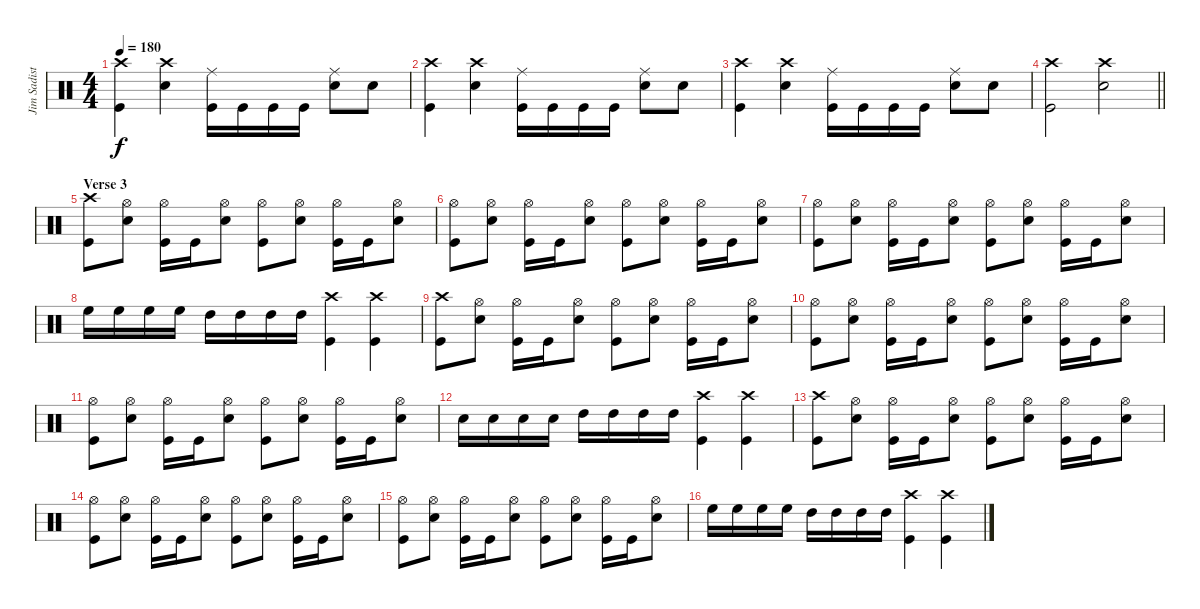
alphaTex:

\track ("Jim Sadist" "Jim Sadist") {instrument percussion}
\staff {score}
\articulation defaults
\ts (4 4)
\tempo 180
\clef neutral
\ks c
("Crash high (hit)" "Kick (hit)").4{dy f} ("Crash high (hit)" "Electric Snare (hit)").4 ("Kick (hit)" "Ride (middle)").16 "Kick (hit)".16 "Kick (hit)".16 "Kick (hit)".16 ("Electric Snare (hit)" "Ride (middle)").8 "Electric Snare (hit)".8 |
("Crash high (hit)" "Kick (hit)").4 ("Crash high (hit)" "Electric Snare (hit)").4 ("Kick (hit)" "Ride (middle)").16 "Kick (hit)".16 "Kick (hit)".16 "Kick (hit)".16 ("Electric Snare (hit)" "Ride (middle)").8 "Electric Snare (hit)".8 |
("Crash high (hit)" "Kick (hit)").4 ("Crash high (hit)" "Electric Snare (hit)").4 ("Kick (hit)" "Ride (middle)").16 "Kick (hit)".16 "Kick (hit)".16 "Kick (hit)".16 ("Electric Snare (hit)" "Ride (middle)").8 "Electric Snare (hit)".8 |
\barLineRight lightlight
("Crash high (hit)" "Kick (hit)").2 ("Crash high (hit)" "Electric Snare (hit)").2 |
\section ("" "Verse 3")
("Kick (hit)" "Crash high (hit)").8 ("Electric Snare (hit)" "Hi-Hat (open)").8 ("Kick (hit)" "Hi-Hat (open)").16 "Kick (hit)".16 ("Electric Snare (hit)" "Hi-Hat (open)").8 ("Kick (hit)" "Hi-Hat (open)").8 ("Electric Snare (hit)" "Hi-Hat (open)").8 ("Kick (hit)" "Hi-Hat (open)").16 "Kick (hit)".16 ("Electric Snare (hit)" "Hi-Hat (open)").8 |
("Kick (hit)" "Hi-Hat (open)").8 ("Electric Snare (hit)" "Hi-Hat (open)").8 ("Kick (hit)" "Hi-Hat (open)").16 "Kick (hit)".16 ("Electric Snare (hit)" "Hi-Hat (open)").8 ("Kick (hit)" "Hi-Hat (open)").8 ("Electric Snare (hit)" "Hi-Hat (open)").8 ("Kick (hit)" "Hi-Hat (open)").16 "Kick (hit)".16 ("Electric Snare (hit)" "Hi-Hat (open)").8 |
("Kick (hit)" "Hi-Hat (open)").8 ("Electric Snare (hit)" "Hi-Hat (open)").8 ("Kick (hit)" "Hi-Hat (open)").16 "Kick (hit)".16 ("Electric Snare (hit)" "Hi-Hat (open)").8 ("Kick (hit)" "Hi-Hat (open)").8 ("Electric Snare (hit)" "Hi-Hat (open)").8 ("Kick (hit)" "Hi-Hat (open)").16 "Kick (hit)".16 ("Electric Snare (hit)" "Hi-Hat (open)").8 |
"High Floor Tom (hit)".16 "High Floor Tom (hit)".16 "High Floor Tom (hit)".16 "High Floor Tom (hit)".16 "High Tom (hit)".16 "High Tom (hit)".16 "High Tom (hit)".16 "High Tom (hit)".16 ("Crash high (hit)" "Kick (hit)").4 ("Crash high (hit)" "Kick (hit)").4 |
("Kick (hit)" "Crash high (hit)").8 ("Electric Snare (hit)" "Hi-Hat (open)").8 ("Kick (hit)" "Hi-Hat (open)").16 "Kick (hit)".16 ("Electric Snare (hit)" "Hi-Hat (open)").8 ("Kick (hit)" "Hi-Hat (open)").8 ("Electric Snare (hit)" "Hi-Hat (open)").8 ("Kick (hit)" "Hi-Hat (open)").16 "Kick (hit)".16 ("Electric Snare (hit)" "Hi-Hat (open)").8 |
("Kick (hit)" "Hi-Hat (open)").8 ("Electric Snare (hit)" "Hi-Hat (open)").8 ("Kick (hit)" "Hi-Hat (open)").16 "Kick (hit)".16 ("Electric Snare (hit)" "Hi-Hat (open)").8 ("Kick (hit)" "Hi-Hat (open)").8 ("Electric Snare (hit)" "Hi-Hat (open)").8 ("Kick (hit)" "Hi-Hat (open)").16 "Kick (hit)".16 ("Electric Snare (hit)" "Hi-Hat (open)").8 |
("Kick (hit)" "Hi-Hat (open)").8 ("Electric Snare (hit)" "Hi-Hat (open)").8 ("Kick (hit)" "Hi-Hat (open)").16 "Kick (hit)".16 ("Electric Snare (hit)" "Hi-Hat (open)").8 ("Kick (hit)" "Hi-Hat (open)").8 ("Electric Snare (hit)" "Hi-Hat (open)").8 ("Kick (hit)" "Hi-Hat (open)").16 "Kick (hit)".16 ("Electric Snare (hit)" "Hi-Hat (open)").8 |
"Electric Snare (hit)".16 "Electric Snare (hit)".16 "Electric Snare (hit)".16 "Electric Snare (hit)".16 "High Tom (hit)".16 "High Tom (hit)".16 "High Tom (hit)".16 "High Tom (hit)".16 ("Crash high (hit)" "Kick (hit)").4 ("Crash high (hit)" "Kick (hit)").4 |
("Kick (hit)" "Crash high (hit)").8 ("Electric Snare (hit)" "Hi-Hat (open)").8 ("Kick (hit)" "Hi-Hat (open)").16 "Kick (hit)".16 ("Electric Snare (hit)" "Hi-Hat (open)").8 ("Kick (hit)" "Hi-Hat (open)").8 ("Electric Snare (hit)" "Hi-Hat (open)").8 ("Kick (hit)" "Hi-Hat (open)").16 "Kick (hit)".16 ("Electric Snare (hit)" "Hi-Hat (open)").8 |
("Kick (hit)" "Hi-Hat (open)").8 ("Electric Snare (hit)" "Hi-Hat (open)").8 ("Kick (hit)" "Hi-Hat (open)").16 "Kick (hit)".16 ("Electric Snare (hit)" "Hi-Hat (open)").8 ("Kick (hit)" "Hi-Hat (open)").8 ("Electric Snare (hit)" "Hi-Hat (open)").8 ("Kick (hit)" "Hi-Hat (open)").16 "Kick (hit)".16 ("Electric Snare (hit)" "Hi-Hat (open)").8 |
("Kick (hit)" "Hi-Hat (open)").8 ("Electric Snare (hit)" "Hi-Hat (open)").8 ("Kick (hit)" "Hi-Hat (open)").16 "Kick (hit)".16 ("Electric Snare (hit)" "Hi-Hat (open)").8 ("Kick (hit)" "Hi-Hat (open)").8 ("Electric Snare (hit)" "Hi-Hat (open)").8 ("Kick (hit)" "Hi-Hat (open)").16 "Kick (hit)".16 ("Electric Snare (hit)" "Hi-Hat (open)").8 |
"High Floor Tom (hit)".16 "High Floor Tom (hit)".16 "High Floor Tom (hit)".16 "High Floor Tom (hit)".16 "High Tom (hit)".16 "High Tom (hit)".16 "High Tom (hit)".16 "High Tom (hit)".16 ("Crash high (hit)" "Kick (hit)").4 ("Crash high (hit)" "Kick (hit)").4
